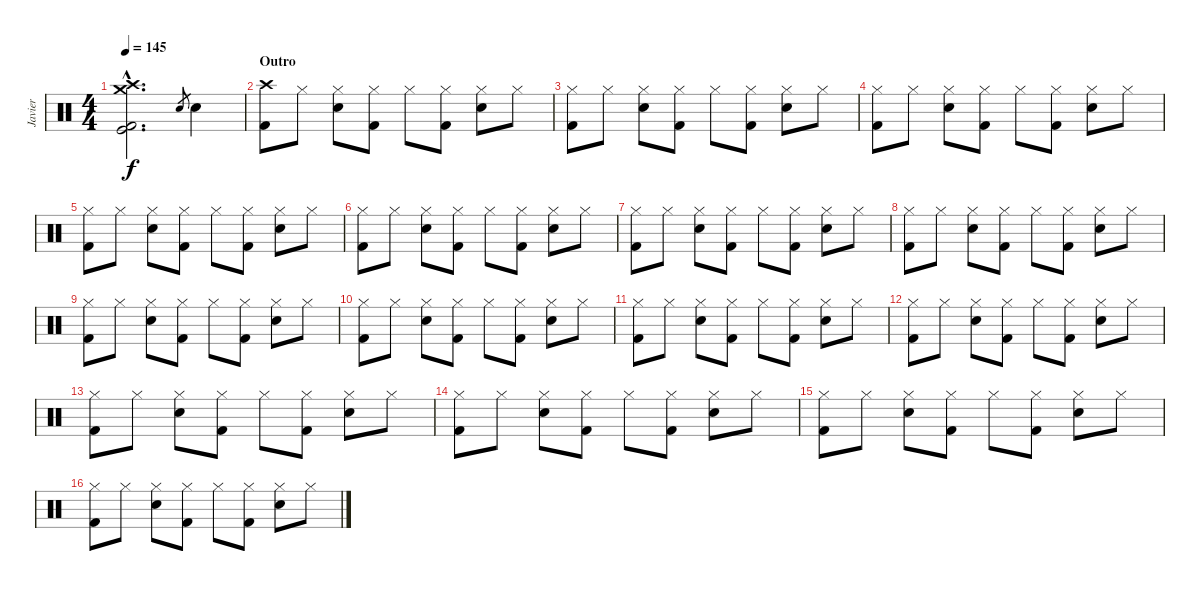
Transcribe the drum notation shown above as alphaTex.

\track ("Javier" "Javier") {instrument percussion}
\staff {score}
\articulation defaults
\ts (4 4)
\tempo 145
\clef neutral
\ks c
("Crash high (hit)"{hac} "Crash medium (hit)"{hac} "Kick (hit) 2"{hac} "Kick (hit)"{hac}).2{d dy f} "Snare (hit) 2".8{gr} "Snare (hit) 2".4 |
\section ("" "Outro")
("Crash high (hit)" "Kick (hit) 2").8 "Hi-Hat (closed)".8 ("Hi-Hat (closed)" "Snare (hit) 2").8 ("Hi-Hat (closed)" "Kick (hit) 2").8 "Hi-Hat (closed)".8 ("Hi-Hat (closed)" "Kick (hit) 2").8 ("Hi-Hat (closed)" "Snare (hit) 2").8 "Hi-Hat (closed)".8 |
("Hi-Hat (closed)" "Kick (hit) 2").8 "Hi-Hat (closed)".8 ("Hi-Hat (closed)" "Snare (hit) 2").8 ("Hi-Hat (closed)" "Kick (hit) 2").8 "Hi-Hat (closed)".8 ("Hi-Hat (closed)" "Kick (hit) 2").8 ("Hi-Hat (closed)" "Snare (hit) 2").8 "Hi-Hat (closed)".8 |
("Hi-Hat (closed)" "Kick (hit) 2").8 "Hi-Hat (closed)".8 ("Hi-Hat (closed)" "Snare (hit) 2").8 ("Hi-Hat (closed)" "Kick (hit) 2").8 "Hi-Hat (closed)".8 ("Hi-Hat (closed)" "Kick (hit) 2").8 ("Hi-Hat (closed)" "Snare (hit) 2").8 "Hi-Hat (closed)".8 |
("Hi-Hat (closed)" "Kick (hit) 2").8 "Hi-Hat (closed)".8 ("Hi-Hat (closed)" "Snare (hit) 2").8 ("Hi-Hat (closed)" "Kick (hit) 2").8 "Hi-Hat (closed)".8 ("Hi-Hat (closed)" "Kick (hit) 2").8 ("Hi-Hat (closed)" "Snare (hit) 2").8 "Hi-Hat (closed)".8 |
("Hi-Hat (closed)" "Kick (hit) 2").8 "Hi-Hat (closed)".8 ("Hi-Hat (closed)" "Snare (hit) 2").8 ("Hi-Hat (closed)" "Kick (hit) 2").8 "Hi-Hat (closed)".8 ("Hi-Hat (closed)" "Kick (hit) 2").8 ("Hi-Hat (closed)" "Snare (hit) 2").8 "Hi-Hat (closed)".8 |
("Hi-Hat (closed)" "Kick (hit) 2").8 "Hi-Hat (closed)".8 ("Hi-Hat (closed)" "Snare (hit) 2").8 ("Hi-Hat (closed)" "Kick (hit) 2").8 "Hi-Hat (closed)".8 ("Hi-Hat (closed)" "Kick (hit) 2").8 ("Hi-Hat (closed)" "Snare (hit) 2").8 "Hi-Hat (closed)".8 |
("Hi-Hat (closed)" "Kick (hit) 2").8 "Hi-Hat (closed)".8 ("Hi-Hat (closed)" "Snare (hit) 2").8 ("Hi-Hat (closed)" "Kick (hit) 2").8 "Hi-Hat (closed)".8 ("Hi-Hat (closed)" "Kick (hit) 2").8 ("Hi-Hat (closed)" "Snare (hit) 2").8 "Hi-Hat (closed)".8 |
("Hi-Hat (closed)" "Kick (hit) 2").8 "Hi-Hat (closed)".8 ("Hi-Hat (closed)" "Snare (hit) 2").8 ("Hi-Hat (closed)" "Kick (hit) 2").8 "Hi-Hat (closed)".8 ("Hi-Hat (closed)" "Kick (hit) 2").8 ("Hi-Hat (closed)" "Snare (hit) 2").8 "Hi-Hat (closed)".8 |
("Hi-Hat (closed)" "Kick (hit) 2").8 "Hi-Hat (closed)".8 ("Hi-Hat (closed)" "Snare (hit) 2").8 ("Hi-Hat (closed)" "Kick (hit) 2").8 "Hi-Hat (closed)".8 ("Hi-Hat (closed)" "Kick (hit) 2").8 ("Hi-Hat (closed)" "Snare (hit) 2").8 "Hi-Hat (closed)".8 |
("Hi-Hat (closed)" "Kick (hit) 2").8 "Hi-Hat (closed)".8 ("Hi-Hat (closed)" "Snare (hit) 2").8 ("Hi-Hat (closed)" "Kick (hit) 2").8 "Hi-Hat (closed)".8 ("Hi-Hat (closed)" "Kick (hit) 2").8 ("Hi-Hat (closed)" "Snare (hit) 2").8 "Hi-Hat (closed)".8 |
("Hi-Hat (closed)" "Kick (hit) 2").8 "Hi-Hat (closed)".8 ("Hi-Hat (closed)" "Snare (hit) 2").8 ("Hi-Hat (closed)" "Kick (hit) 2").8 "Hi-Hat (closed)".8 ("Hi-Hat (closed)" "Kick (hit) 2").8 ("Hi-Hat (closed)" "Snare (hit) 2").8 "Hi-Hat (closed)".8 |
("Hi-Hat (closed)" "Kick (hit) 2").8 "Hi-Hat (closed)".8 ("Hi-Hat (closed)" "Snare (hit) 2").8 ("Hi-Hat (closed)" "Kick (hit) 2").8 "Hi-Hat (closed)".8 ("Hi-Hat (closed)" "Kick (hit) 2").8 ("Hi-Hat (closed)" "Snare (hit) 2").8 "Hi-Hat (closed)".8 |
("Hi-Hat (closed)" "Kick (hit) 2").8 "Hi-Hat (closed)".8 ("Hi-Hat (closed)" "Snare (hit) 2").8 ("Hi-Hat (closed)" "Kick (hit) 2").8 "Hi-Hat (closed)".8 ("Hi-Hat (closed)" "Kick (hit) 2").8 ("Hi-Hat (closed)" "Snare (hit) 2").8 "Hi-Hat (closed)".8 |
("Hi-Hat (closed)" "Kick (hit) 2").8 "Hi-Hat (closed)".8 ("Hi-Hat (closed)" "Snare (hit) 2").8 ("Hi-Hat (closed)" "Kick (hit) 2").8 "Hi-Hat (closed)".8 ("Hi-Hat (closed)" "Kick (hit) 2").8 ("Hi-Hat (closed)" "Snare (hit) 2").8 "Hi-Hat (closed)".8 |
("Hi-Hat (closed)" "Kick (hit) 2").8 "Hi-Hat (closed)".8 ("Hi-Hat (closed)" "Snare (hit) 2").8 ("Hi-Hat (closed)" "Kick (hit) 2").8 "Hi-Hat (closed)".8 ("Hi-Hat (closed)" "Kick (hit) 2").8 ("Hi-Hat (closed)" "Snare (hit) 2").8 "Hi-Hat (closed)".8
